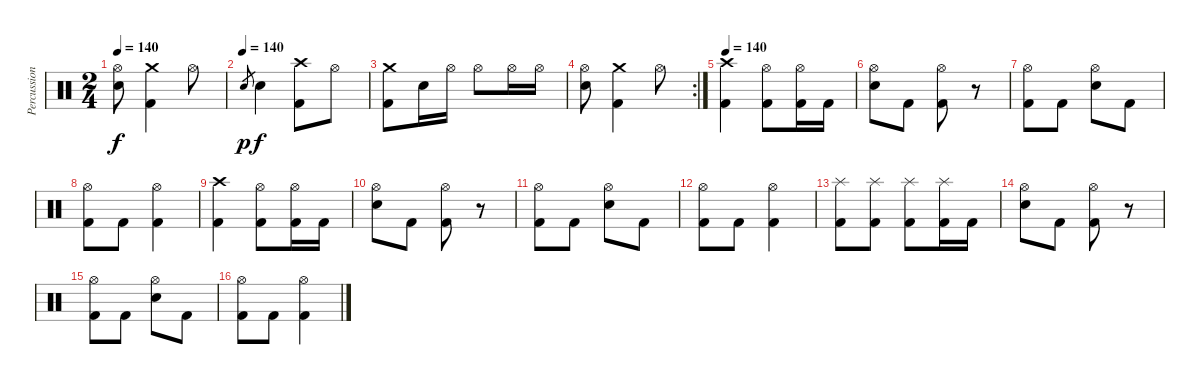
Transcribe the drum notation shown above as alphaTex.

\track ("Percussion" "Percussion") {instrument percussion}
\staff {score}
\articulation defaults
\ts (2 4)
\tempo 140
\clef neutral
\ks c
("Hi-Hat (open)" "Electric Snare (hit)").8{dy f} ("Crash medium (hit)" "Kick (hit) 2").4 "Hi-Hat (open)".8 |
\tempo (140)
"Electric Snare (hit)".8{gr dy p} "Electric Snare (hit)".4{dy f} ("Crash high (hit)" "Kick (hit) 2").8 "Hi-Hat (open)".8 |
("Crash medium (hit)" "Kick (hit) 2").8 "Electric Snare (hit)".16 "Hi-Hat (open)".16 "Hi-Hat (open)".8 "Hi-Hat (open)".16 "Hi-Hat (open)".16 |
\rc 2
("Hi-Hat (open)" "Electric Snare (hit)").8 ("Crash medium (hit)" "Kick (hit) 2").4 "Hi-Hat (open)".8 |
\tempo 140
("Crash high (hit)" "Kick (hit) 2").4 ("Hi-Hat (open)" "Kick (hit) 2").8 ("Hi-Hat (open)" "Kick (hit) 2").16 "Kick (hit) 2".16 |
("Hi-Hat (open)" "Electric Snare (hit)").8 "Kick (hit) 2".8 ("Hi-Hat (open)" "Kick (hit) 2").8 r.8 |
("Hi-Hat (open)" "Kick (hit) 2").8 "Kick (hit) 2".8 ("Hi-Hat (open)" "Electric Snare (hit)").8 "Kick (hit) 2".8 |
("Hi-Hat (open)" "Kick (hit) 2").8 "Kick (hit) 2".8 ("Hi-Hat (open)" "Kick (hit) 2").4 |
("Crash high (hit)" "Kick (hit) 2").4 ("Hi-Hat (open)" "Kick (hit) 2").8 ("Hi-Hat (open)" "Kick (hit) 2").16 "Kick (hit) 2".16 |
("Hi-Hat (open)" "Electric Snare (hit)").8 "Kick (hit) 2".8 ("Hi-Hat (open)" "Kick (hit) 2").8 r.8 |
("Hi-Hat (open)" "Kick (hit) 2").8 "Kick (hit) 2".8 ("Hi-Hat (open)" "Electric Snare (hit)").8 "Kick (hit) 2".8 |
("Hi-Hat (open)" "Kick (hit) 2").8 "Kick (hit) 2".8 ("Hi-Hat (open)" "Kick (hit) 2").4 |
("Splash (hit)" "Kick (hit) 2").8 ("Splash (hit)" "Kick (hit) 2").8 ("Splash (hit)" "Kick (hit) 2").8 ("Splash (hit)" "Kick (hit) 2").16 "Kick (hit) 2".16 |
("Hi-Hat (open)" "Electric Snare (hit)").8 "Kick (hit) 2".8 ("Hi-Hat (open)" "Kick (hit) 2").8 r.8 |
("Hi-Hat (open)" "Kick (hit) 2").8 "Kick (hit) 2".8 ("Hi-Hat (open)" "Electric Snare (hit)").8 "Kick (hit) 2".8 |
("Hi-Hat (open)" "Kick (hit) 2").8 "Kick (hit) 2".8 ("Hi-Hat (open)" "Kick (hit) 2").4
